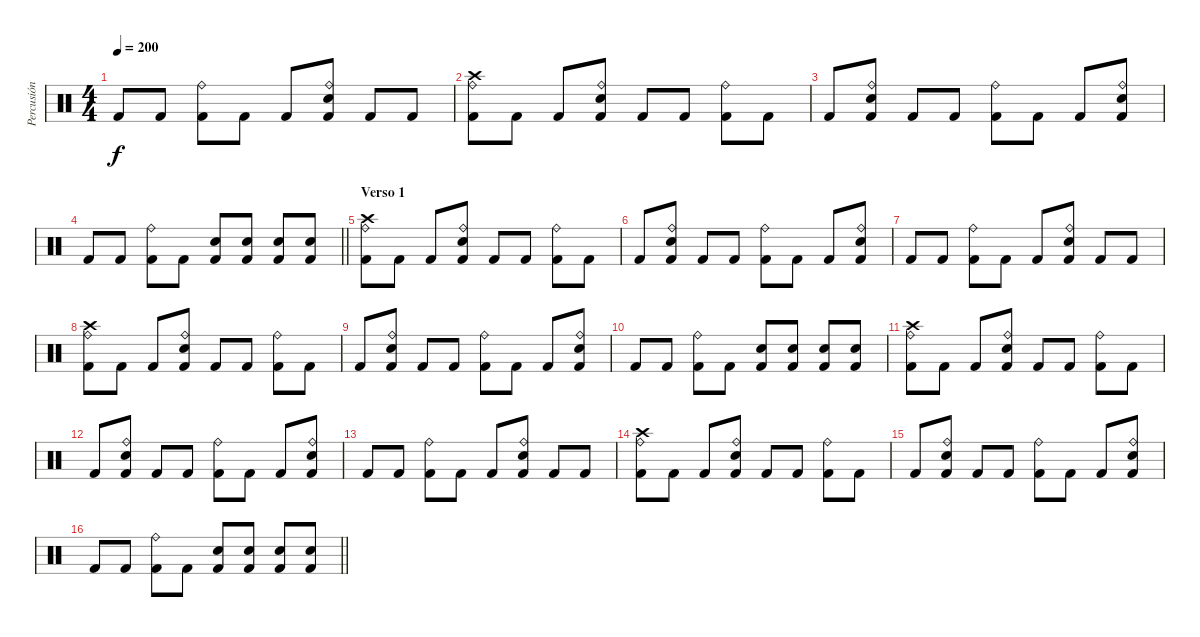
\track ("Percusión" "Percusión") {instrument percussion}
\staff {score}
\articulation defaults
\ts (4 4)
\tempo 200
\clef neutral
\ks c "Kick (hit) 2".8{dy f} "Kick (hit) 2".8
("Ride (bell)" "Kick (hit) 2").8 "Kick (hit) 2".8 "Kick (hit) 2".8 ("Ride (bell)" "Snare (hit) 2" "Kick (hit) 2").8 "Kick (hit) 2".8 "Kick (hit) 2".8 |
("Ride (bell)" "Crash high (hit)" "Kick (hit) 2").8 "Kick (hit) 2".8 "Kick (hit) 2".8 ("Ride (bell)" "Snare (hit) 2" "Kick (hit) 2").8 "Kick (hit) 2".8 "Kick (hit) 2".8 ("Ride (bell)" "Kick (hit) 2").8 "Kick (hit) 2".8 |
"Kick (hit) 2".8 ("Ride (bell)" "Snare (hit) 2" "Kick (hit) 2").8 "Kick (hit) 2".8 "Kick (hit) 2".8 ("Ride (bell)" "Kick (hit) 2").8 "Kick (hit) 2".8 "Kick (hit) 2".8 ("Ride (bell)" "Snare (hit) 2" "Kick (hit) 2").8 |
\barLineRight lightlight "Kick (hit) 2".8 "Kick (hit) 2".8
("Ride (bell)" "Kick (hit) 2").8 "Kick (hit) 2".8 ("Snare (hit) 2" "Kick (hit) 2").8 ("Snare (hit) 2" "Kick (hit) 2").8 ("Snare (hit) 2" "Kick (hit) 2").8 ("Snare (hit) 2" "Kick (hit) 2").8 |
\section ("" "Verso 1")
("Ride (bell)" "Crash high (hit)" "Kick (hit) 2").8 "Kick (hit) 2".8 "Kick (hit) 2".8 ("Ride (bell)" "Snare (hit) 2" "Kick (hit) 2").8 "Kick (hit) 2".8 "Kick (hit) 2".8 ("Ride (bell)" "Kick (hit) 2").8 "Kick (hit) 2".8 |
"Kick (hit) 2".8 ("Ride (bell)" "Snare (hit) 2" "Kick (hit) 2").8 "Kick (hit) 2".8 "Kick (hit) 2".8 ("Ride (bell)" "Kick (hit) 2").8 "Kick (hit) 2".8 "Kick (hit) 2".8 ("Ride (bell)" "Snare (hit) 2" "Kick (hit) 2").8 |
"Kick (hit) 2".8 "Kick (hit) 2".8 ("Ride (bell)" "Kick (hit) 2").8 "Kick (hit) 2".8 "Kick (hit) 2".8 ("Ride (bell)" "Snare (hit) 2" "Kick (hit) 2").8 "Kick (hit) 2".8 "Kick (hit) 2".8 |
("Ride (bell)" "Crash high (hit)" "Kick (hit) 2").8 "Kick (hit) 2".8 "Kick (hit) 2".8 ("Ride (bell)" "Snare (hit) 2" "Kick (hit) 2").8 "Kick (hit) 2".8 "Kick (hit) 2".8 ("Ride (bell)" "Kick (hit) 2").8 "Kick (hit) 2".8 |
"Kick (hit) 2".8 ("Ride (bell)" "Snare (hit) 2" "Kick (hit) 2").8 "Kick (hit) 2".8 "Kick (hit) 2".8 ("Ride (bell)" "Kick (hit) 2").8 "Kick (hit) 2".8 "Kick (hit) 2".8 ("Ride (bell)" "Snare (hit) 2" "Kick (hit) 2").8 |
"Kick (hit) 2".8 "Kick (hit) 2".8 ("Ride (bell)" "Kick (hit) 2").8 "Kick (hit) 2".8 ("Snare (hit) 2" "Kick (hit) 2").8 ("Snare (hit) 2" "Kick (hit) 2").8 ("Snare (hit) 2" "Kick (hit) 2").8 ("Snare (hit) 2" "Kick (hit) 2").8 |
("Ride (bell)" "Crash high (hit)" "Kick (hit) 2").8 "Kick (hit) 2".8 "Kick (hit) 2".8 ("Ride (bell)" "Snare (hit) 2" "Kick (hit) 2").8 "Kick (hit) 2".8 "Kick (hit) 2".8 ("Ride (bell)" "Kick (hit) 2").8 "Kick (hit) 2".8 |
"Kick (hit) 2".8 ("Ride (bell)" "Snare (hit) 2" "Kick (hit) 2").8 "Kick (hit) 2".8 "Kick (hit) 2".8 ("Ride (bell)" "Kick (hit) 2").8 "Kick (hit) 2".8 "Kick (hit) 2".8 ("Ride (bell)" "Snare (hit) 2" "Kick (hit) 2").8 |
"Kick (hit) 2".8 "Kick (hit) 2".8 ("Ride (bell)" "Kick (hit) 2").8 "Kick (hit) 2".8 "Kick (hit) 2".8 ("Ride (bell)" "Snare (hit) 2" "Kick (hit) 2").8 "Kick (hit) 2".8 "Kick (hit) 2".8 |
("Ride (bell)" "Crash high (hit)" "Kick (hit) 2").8 "Kick (hit) 2".8 "Kick (hit) 2".8 ("Ride (bell)" "Snare (hit) 2" "Kick (hit) 2").8 "Kick (hit) 2".8 "Kick (hit) 2".8 ("Ride (bell)" "Kick (hit) 2").8 "Kick (hit) 2".8 |
"Kick (hit) 2".8 ("Ride (bell)" "Snare (hit) 2" "Kick (hit) 2").8 "Kick (hit) 2".8 "Kick (hit) 2".8 ("Ride (bell)" "Kick (hit) 2").8 "Kick (hit) 2".8 "Kick (hit) 2".8 ("Ride (bell)" "Snare (hit) 2" "Kick (hit) 2").8 |
\barLineRight lightlight "Kick (hit) 2".8 "Kick (hit) 2".8
("Ride (bell)" "Kick (hit) 2").8 "Kick (hit) 2".8 ("Snare (hit) 2" "Kick (hit) 2").8 ("Snare (hit) 2" "Kick (hit) 2").8 ("Snare (hit) 2" "Kick (hit) 2").8 ("Snare (hit) 2" "Kick (hit) 2").8
